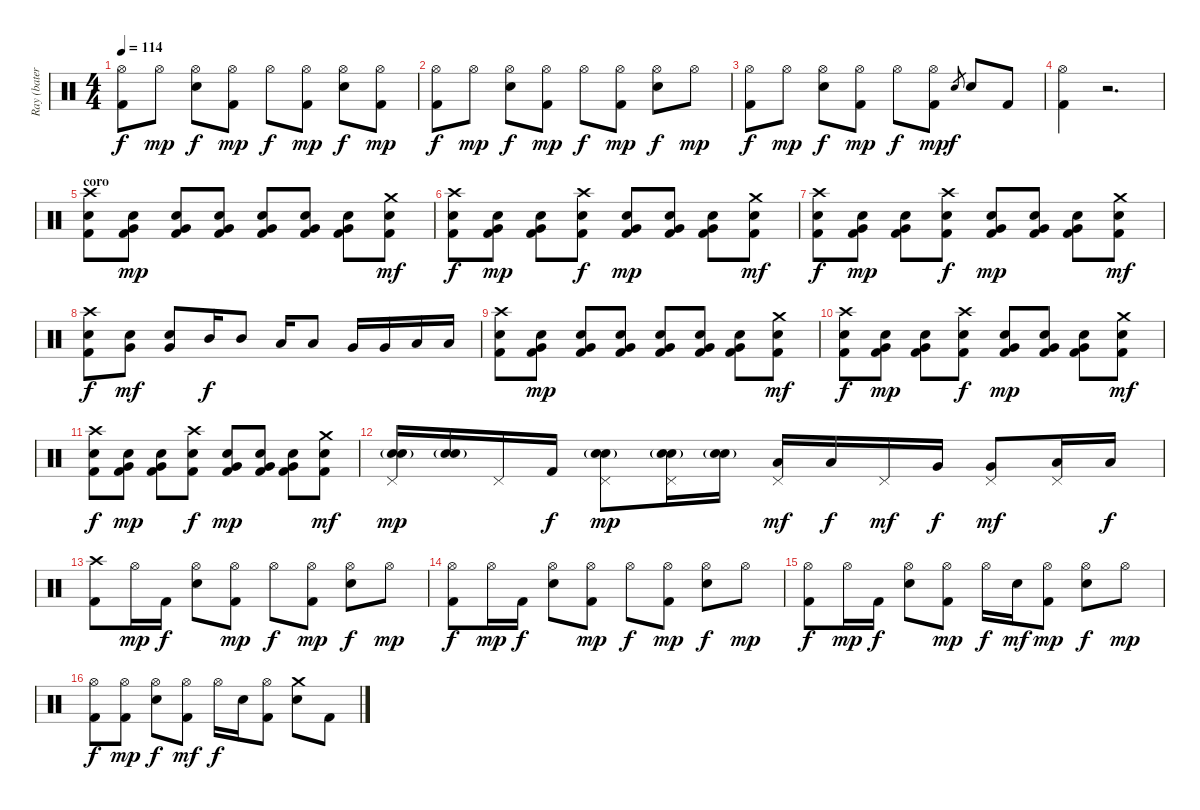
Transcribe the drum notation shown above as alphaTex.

\track ("Ray (batería)" "Ray (bater") {instrument percussion}
\staff {score}
\articulation defaults
\ts (4 4)
\tempo 114
\clef neutral
\ks c
("Hi-Hat (open)" "Kick (hit) 2").8{dy f} "Hi-Hat (open)".8{dy mp} ("Hi-Hat (open)" "Snare (hit) 2").8{dy f} ("Hi-Hat (open)" "Kick (hit) 2").8{dy mp} "Hi-Hat (open)".8{dy f} ("Hi-Hat (open)" "Kick (hit) 2").8{dy mp} ("Hi-Hat (open)" "Snare (hit) 2").8{dy f} ("Hi-Hat (open)" "Kick (hit) 2").8{dy mp} |
("Hi-Hat (open)" "Kick (hit) 2").8{dy f} "Hi-Hat (open)".8{dy mp} ("Hi-Hat (open)" "Snare (hit) 2").8{dy f} ("Hi-Hat (open)" "Kick (hit) 2").8{dy mp} "Hi-Hat (open)".8{dy f} ("Hi-Hat (open)" "Kick (hit) 2").8{dy mp} ("Hi-Hat (open)" "Snare (hit) 2").8{dy f} "Hi-Hat (open)".8{dy mp} |
("Hi-Hat (open)" "Kick (hit) 2").8{dy f} "Hi-Hat (open)".8{dy mp} ("Hi-Hat (open)" "Snare (hit) 2").8{dy f} ("Hi-Hat (open)" "Kick (hit) 2").8{dy mp} "Hi-Hat (open)".8{dy f} ("Hi-Hat (open)" "Kick (hit) 2").8{dy mp} "Snare (hit) 2".8{gr dy f} "Snare (hit) 2".8 "Kick (hit) 2".8 |
("Hi-Hat (open)" "Kick (hit) 2").4 r.2{d} |
\section ("" "coro")
("Crash high (hit)" "Snare (hit) 2" "Kick (hit) 2").8 ("Snare (hit) 2" "Very Low Tom (hit)" "Kick (hit) 2").8{dy mp} ("Snare (hit) 2" "Very Low Tom (hit)" "Kick (hit) 2").8 ("Snare (hit) 2" "Very Low Tom (hit)" "Kick (hit) 2").8 ("Snare (hit) 2" "Very Low Tom (hit)" "Kick (hit) 2").8 ("Snare (hit) 2" "Very Low Tom (hit)" "Kick (hit) 2").8 ("Snare (hit) 2" "Very Low Tom (hit)" "Kick (hit) 2").8 ("Crash medium (hit)" "Snare (hit) 2" "Kick (hit) 2").8{dy mf} |
("Crash high (hit)" "Snare (hit) 2" "Kick (hit) 2").8{dy f} ("Snare (hit) 2" "Very Low Tom (hit)" "Kick (hit) 2").8{dy mp} ("Snare (hit) 2" "Very Low Tom (hit)" "Kick (hit) 2").8 ("Crash high (hit)" "Snare (hit) 2" "Kick (hit) 2").8{dy f} ("Snare (hit) 2" "Very Low Tom (hit)" "Kick (hit) 2").8{dy mp} ("Snare (hit) 2" "Very Low Tom (hit)" "Kick (hit) 2").8 ("Snare (hit) 2" "Very Low Tom (hit)" "Kick (hit) 2").8 ("Crash medium (hit)" "Snare (hit) 2" "Kick (hit) 2").8{dy mf} |
("Crash high (hit)" "Snare (hit) 2" "Kick (hit) 2").8{dy f} ("Snare (hit) 2" "Very Low Tom (hit)" "Kick (hit) 2").8{dy mp} ("Snare (hit) 2" "Very Low Tom (hit)" "Kick (hit) 2").8 ("Crash high (hit)" "Snare (hit) 2" "Kick (hit) 2").8{dy f} ("Snare (hit) 2" "Very Low Tom (hit)" "Kick (hit) 2").8{dy mp} ("Snare (hit) 2" "Very Low Tom (hit)" "Kick (hit) 2").8 ("Snare (hit) 2" "Very Low Tom (hit)" "Kick (hit) 2").8 ("Crash medium (hit)" "Snare (hit) 2" "Kick (hit) 2").8{dy mf} |
("Crash high (hit)" "Snare (hit) 2" "Kick (hit) 2").8{dy f} ("Snare (hit) 2" "Very Low Tom (hit)").8{dy mf} ("Snare (hit) 2" "Very Low Tom (hit)").8 "Mid Tom (hit)".16{dy f} "Mid Tom (hit)".8 "Low Tom (hit)".16 "Low Tom (hit)".8 "Very Low Tom (hit)".16 "Very Low Tom (hit)".16 "Low Floor Tom (hit)".16 "Low Floor Tom (hit)".16 |
("Crash high (hit)" "Snare (hit) 2" "Kick (hit) 2").8 ("Snare (hit) 2" "Very Low Tom (hit)" "Kick (hit) 2").8{dy mp} ("Snare (hit) 2" "Very Low Tom (hit)" "Kick (hit) 2").8 ("Snare (hit) 2" "Very Low Tom (hit)" "Kick (hit) 2").8 ("Snare (hit) 2" "Very Low Tom (hit)" "Kick (hit) 2").8 ("Snare (hit) 2" "Very Low Tom (hit)" "Kick (hit) 2").8 ("Snare (hit) 2" "Very Low Tom (hit)" "Kick (hit) 2").8 ("Crash medium (hit)" "Snare (hit) 2" "Kick (hit) 2").8{dy mf} |
("Crash high (hit)" "Snare (hit) 2" "Kick (hit) 2").8{dy f} ("Snare (hit) 2" "Very Low Tom (hit)" "Kick (hit) 2").8{dy mp} ("Snare (hit) 2" "Very Low Tom (hit)" "Kick (hit) 2").8 ("Crash high (hit)" "Snare (hit) 2" "Kick (hit) 2").8{dy f} ("Snare (hit) 2" "Very Low Tom (hit)" "Kick (hit) 2").8{dy mp} ("Snare (hit) 2" "Very Low Tom (hit)" "Kick (hit) 2").8 ("Snare (hit) 2" "Very Low Tom (hit)" "Kick (hit) 2").8 ("Crash medium (hit)" "Snare (hit) 2" "Kick (hit) 2").8{dy mf} |
("Crash high (hit)" "Snare (hit) 2" "Kick (hit) 2").8{dy f} ("Snare (hit) 2" "Very Low Tom (hit)" "Kick (hit) 2").8{dy mp} ("Snare (hit) 2" "Very Low Tom (hit)" "Kick (hit) 2").8 ("Crash high (hit)" "Snare (hit) 2" "Kick (hit) 2").8{dy f} ("Snare (hit) 2" "Very Low Tom (hit)" "Kick (hit) 2").8{dy mp} ("Snare (hit) 2" "Very Low Tom (hit)" "Kick (hit) 2").8 ("Snare (hit) 2" "Very Low Tom (hit)" "Kick (hit) 2").8 ("Crash medium (hit)" "Snare (hit) 2" "Kick (hit) 2").8{dy mf} |
("Pedal Hi-Hat (hit)" "Electric Snare (hit)"{g} "Snare (hit) 2").16{dy mp} ("Electric Snare (hit)"{g} "Snare (hit) 2").16 "Pedal Hi-Hat (hit)".16 "Kick (hit) 2".16{dy f} ("Pedal Hi-Hat (hit)" "Electric Snare (hit)"{g} "Snare (hit) 2").8{dy mp} ("Pedal Hi-Hat (hit)" "Electric Snare (hit)"{g} "Snare (hit) 2").16 ("Electric Snare (hit)"{g} "Snare (hit) 2").16 ("Pedal Hi-Hat (hit)" "Low Tom (hit)").16{dy mf} "Low Tom (hit)".16{dy f} "Pedal Hi-Hat (hit)".16{dy mf} "Very Low Tom (hit)".16{dy f} ("Pedal Hi-Hat (hit)" "Very Low Tom (hit)").8{dy mf} ("Pedal Hi-Hat (hit)" "Low Floor Tom (hit)").16 "Low Floor Tom (hit)".16{dy f} |
("Crash high (hit)" "Kick (hit) 2").8 "Hi-Hat (open)".16{dy mp} "Kick (hit) 2".16{dy f} ("Hi-Hat (open)" "Snare (hit) 2").8 ("Hi-Hat (open)" "Kick (hit) 2").8{dy mp} "Hi-Hat (open)".8{dy f} ("Hi-Hat (open)" "Kick (hit) 2").8{dy mp} ("Hi-Hat (open)" "Snare (hit) 2").8{dy f} "Hi-Hat (open)".8{dy mp} |
("Hi-Hat (open)" "Kick (hit) 2").8{dy f} "Hi-Hat (open)".16{dy mp} "Kick (hit) 2".16{dy f} ("Hi-Hat (open)" "Snare (hit) 2").8 ("Hi-Hat (open)" "Kick (hit) 2").8{dy mp} "Hi-Hat (open)".8{dy f} ("Hi-Hat (open)" "Kick (hit) 2").8{dy mp} ("Hi-Hat (open)" "Snare (hit) 2").8{dy f} "Hi-Hat (open)".8{dy mp} |
("Hi-Hat (open)" "Kick (hit) 2").8{dy f} "Hi-Hat (open)".16{dy mp} "Kick (hit) 2".16{dy f} ("Hi-Hat (open)" "Snare (hit) 2").8 ("Hi-Hat (open)" "Kick (hit) 2").8{dy mp} "Hi-Hat (open)".16{dy f} "Snare (hit) 2".16{dy mf} ("Hi-Hat (open)" "Kick (hit) 2").8{dy mp} ("Hi-Hat (open)" "Snare (hit) 2").8{dy f} "Hi-Hat (open)".8{dy mp} |
("Hi-Hat (open)" "Kick (hit) 2").8{dy f} ("Hi-Hat (open)" "Kick (hit) 2").8{dy mp} ("Hi-Hat (open)" "Snare (hit) 2").8{dy f} ("Hi-Hat (open)" "Kick (hit) 2").8{dy mf} "Hi-Hat (open)".16{dy f} "Snare (hit) 2".16 ("Hi-Hat (open)" "Kick (hit) 2").8 ("Crash medium (hit)" "Snare (hit) 2").8 "Kick (hit) 2".8
